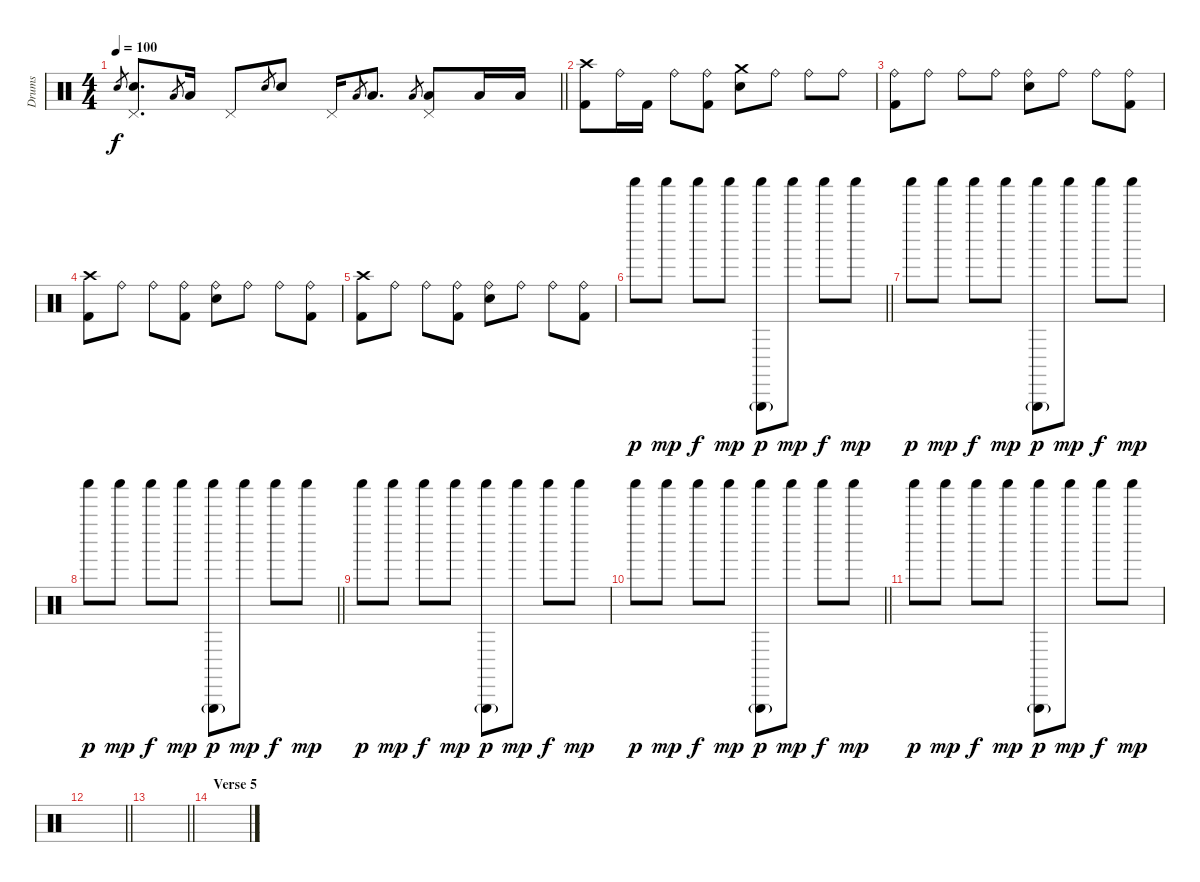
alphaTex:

\track ("Drums" "Drums") {instrument percussion}
\staff {score}
\articulation defaults
\ts (4 4)
\tempo 100
\clef neutral
\barLineRight lightlight
\ks c "Snare (hit) 2".8{gr dy f}
("Pedal Hi-Hat (hit)" "Snare (hit) 2").8{d} "Low Tom (hit)".8{gr} "Low Tom (hit)".16 "Pedal Hi-Hat (hit)".8 "Snare (hit) 2".8{gr} "Snare (hit) 2".8 "Pedal Hi-Hat (hit)".16 "Low Tom (hit)".8{gr} "Low Tom (hit)".8{d} "Low Floor Tom (hit)".8{gr} ("Pedal Hi-Hat (hit)" "Low Floor Tom (hit)").8 "Low Floor Tom (hit)".16 "Low Floor Tom (hit)".16 |
("Crash high (hit)" "Kick (hit) 2").8 "Ride (bell)".16 "Kick (hit) 2".16 "Ride (bell)".8 ("Ride (bell)" "Kick (hit) 2").8 ("Crash medium (hit)" "Snare (hit) 2").8 "Ride (bell)".8 "Ride (bell)".8 "Ride (bell)".8 |
("Ride (bell)" "Kick (hit) 2").8 "Ride (bell)".8 "Ride (bell)".8 "Ride (bell)".8 ("Ride (bell)" "Snare (hit) 2").8 "Ride (bell)".8 "Ride (bell)".8 ("Ride (bell)" "Kick (hit) 2").8 |
("Crash high (hit)" "Kick (hit) 2").8 "Ride (bell)".8 "Ride (bell)".8 ("Ride (bell)" "Kick (hit) 2").8 ("Ride (bell)" "Snare (hit) 2").8 "Ride (bell)".8 "Ride (bell)".8 ("Ride (bell)" "Kick (hit) 2").8 |
("Crash high (hit)" "Kick (hit) 2").8 "Ride (bell)".8 "Ride (bell)".8 ("Ride (bell)" "Kick (hit) 2").8 ("Ride (bell)" "Snare (hit) 2").8 "Ride (bell)".8 "Ride (bell)".8 ("Ride (bell)" "Kick (hit) 2").8 |
\barLineRight lightlight "Shaker (hit)".8{dy p volume 0} "Shaker (hit)".8{dy mp} "Shaker (hit)".8{dy f} "Shaker (hit)".8{dy mp}
("Triangle (hit)"{g} "Shaker (hit)").8{dy p} "Shaker (hit)".8{dy mp} "Shaker (hit)".8{dy f} "Shaker (hit)".8{dy mp} |
"Shaker (hit)".8{dy p} "Shaker (hit)".8{dy mp} "Shaker (hit)".8{dy f} "Shaker (hit)".8{dy mp} ("Triangle (hit)"{g} "Shaker (hit)").8{dy p} "Shaker (hit)".8{dy mp} "Shaker (hit)".8{dy f} "Shaker (hit)".8{dy mp} |
\barLineRight lightlight "Shaker (hit)".8{dy p} "Shaker (hit)".8{dy mp} "Shaker (hit)".8{dy f} "Shaker (hit)".8{dy mp}
("Triangle (hit)"{g} "Shaker (hit)").8{dy p} "Shaker (hit)".8{dy mp} "Shaker (hit)".8{dy f} "Shaker (hit)".8{dy mp} |
"Shaker (hit)".8{dy p} "Shaker (hit)".8{dy mp} "Shaker (hit)".8{dy f} "Shaker (hit)".8{dy mp} ("Triangle (hit)"{g} "Shaker (hit)").8{dy p} "Shaker (hit)".8{dy mp} "Shaker (hit)".8{dy f} "Shaker (hit)".8{dy mp} |
\barLineRight lightlight "Shaker (hit)".8{dy p} "Shaker (hit)".8{dy mp} "Shaker (hit)".8{dy f} "Shaker (hit)".8{dy mp}
("Triangle (hit)"{g} "Shaker (hit)").8{dy p} "Shaker (hit)".8{dy mp} "Shaker (hit)".8{dy f} "Shaker (hit)".8{dy mp} |
"Shaker (hit)".8{dy p} "Shaker (hit)".8{dy mp} "Shaker (hit)".8{dy f} "Shaker (hit)".8{dy mp} ("Triangle (hit)"{g} "Shaker (hit)").8{dy p} "Shaker (hit)".8{dy mp} "Shaker (hit)".8{dy f} "Shaker (hit)".8{dy mp} |
\barLineRight lightlight
|
\barLineRight lightlight
|
\section ("" "Verse 5")
